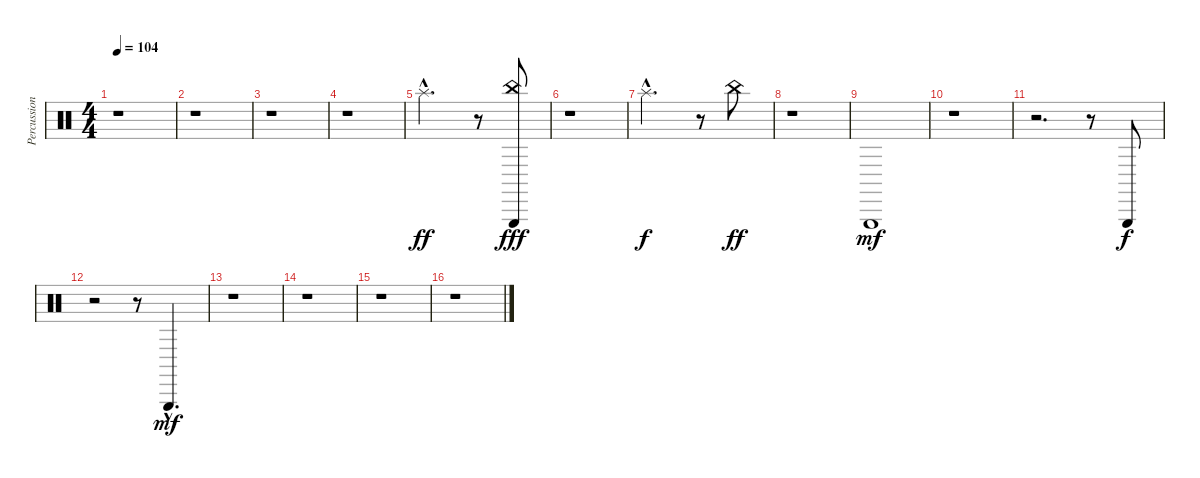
\track ("Percussion" "Percussion") {instrument percussion}
\staff {score}
\articulation defaults
\ts (4 4)
\tempo 104
\clef neutral
\ks c
r.1{dy f} |
r.1 |
r.1 |
r.1 |
"Splash (hit)"{hac}.2{d dy ff} r.8 ("Triangle (hit)" "China (hit)").8{dy fff} |
r.1 |
"Splash (hit)"{hac}.2{d dy f} r.8 "China (hit)".8{dy ff} |
r.1 |
"Triangle (hit)".1{dy mf} |
r.1 |
r.2{d} r.8 "Triangle (hit)".8{dy f} |
r.2 r.8 "Triangle (hit)"{hac}.4{d dy mf} |
r.1 |
r.1 |
r.1 |
r.1
